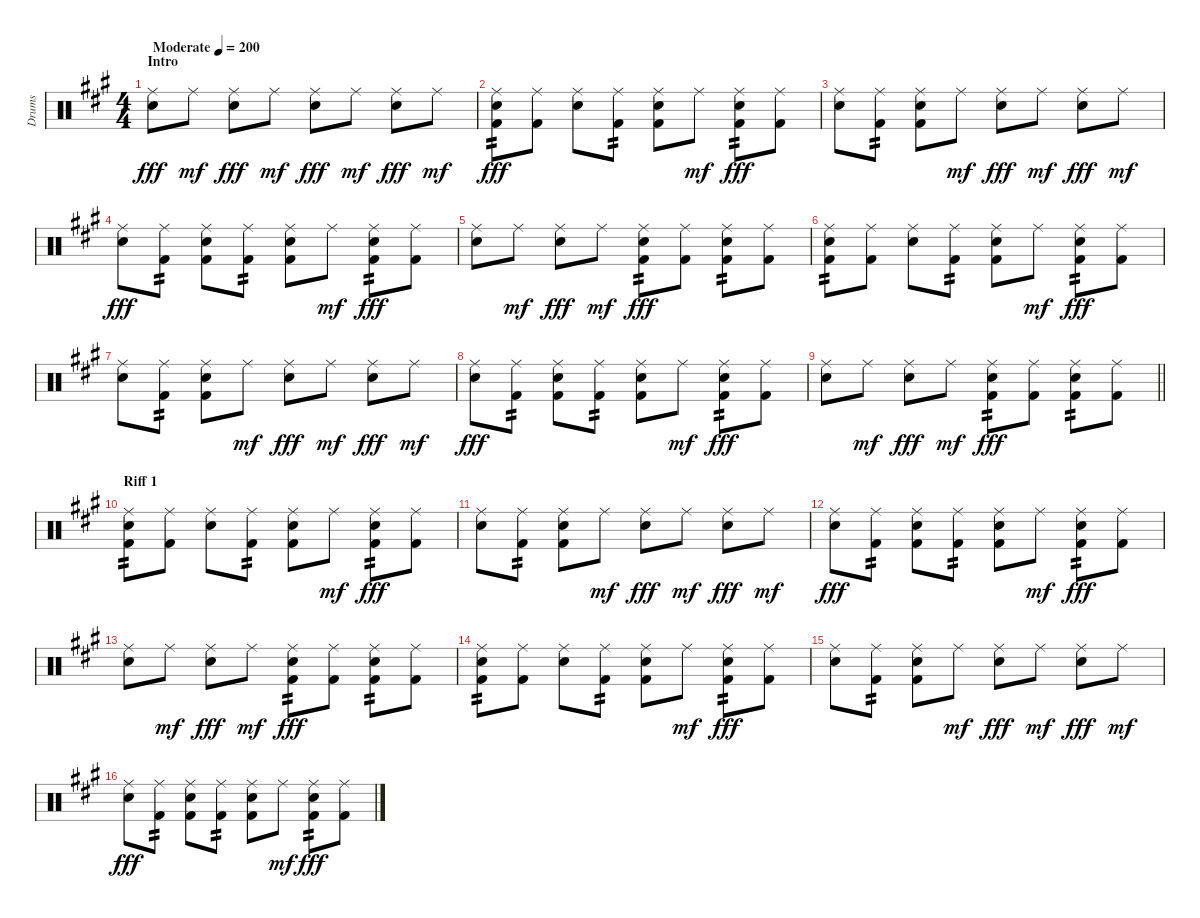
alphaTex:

\track ("Drums" "Drums") {instrument percussion}
\staff {score}
\articulation defaults
\ts (4 4)
\section ("" "Intro")
\tempo (200 "Moderate")
\clef neutral
\ks f#minor
("Ride (middle)" "Electric Snare (hit)").8{dy fff} "Ride (middle)".8{dy mf} ("Ride (middle)" "Electric Snare (hit)").8{dy fff} "Ride (middle)".8{dy mf} ("Ride (middle)" "Electric Snare (hit)").8{dy fff} "Ride (middle)".8{dy mf} ("Ride (middle)" "Electric Snare (hit)").8{dy fff} "Ride (middle)".8{dy mf} |
("Ride (middle)" "Electric Snare (hit)" "Kick (hit) 2").8{tp 2 dy fff} ("Ride (middle)" "Kick (hit) 2").8 ("Ride (middle)" "Electric Snare (hit)").8 ("Ride (middle)" "Kick (hit) 2").8{tp 2} ("Ride (middle)" "Electric Snare (hit)" "Kick (hit) 2").8 "Ride (middle)".8{dy mf} ("Ride (middle)" "Electric Snare (hit)" "Kick (hit) 2").8{tp 2 dy fff} ("Ride (middle)" "Kick (hit) 2").8 |
("Ride (middle)" "Electric Snare (hit)").8 ("Ride (middle)" "Kick (hit) 2").8{tp 2} ("Ride (middle)" "Electric Snare (hit)" "Kick (hit) 2").8 "Ride (middle)".8{dy mf} ("Ride (middle)" "Electric Snare (hit)").8{dy fff} "Ride (middle)".8{dy mf} ("Ride (middle)" "Electric Snare (hit)").8{dy fff} "Ride (middle)".8{dy mf} |
("Ride (middle)" "Electric Snare (hit)").8{dy fff} ("Ride (middle)" "Kick (hit) 2").8{tp 2} ("Ride (middle)" "Electric Snare (hit)" "Kick (hit) 2").8 ("Ride (middle)" "Kick (hit) 2").8{tp 2} ("Ride (middle)" "Electric Snare (hit)" "Kick (hit) 2").8 "Ride (middle)".8{dy mf} ("Ride (middle)" "Electric Snare (hit)" "Kick (hit) 2").8{tp 2 dy fff} ("Ride (middle)" "Kick (hit) 2").8 |
("Ride (middle)" "Electric Snare (hit)").8 "Ride (middle)".8{dy mf} ("Ride (middle)" "Electric Snare (hit)").8{dy fff} "Ride (middle)".8{dy mf} ("Ride (middle)" "Electric Snare (hit)" "Kick (hit) 2").8{tp 2 dy fff} ("Ride (middle)" "Kick (hit) 2").8 ("Ride (middle)" "Electric Snare (hit)" "Kick (hit) 2").8{tp 2} ("Ride (middle)" "Kick (hit) 2").8 |
("Ride (middle)" "Electric Snare (hit)" "Kick (hit) 2").8{tp 2} ("Ride (middle)" "Kick (hit) 2").8 ("Ride (middle)" "Electric Snare (hit)").8 ("Ride (middle)" "Kick (hit) 2").8{tp 2} ("Ride (middle)" "Electric Snare (hit)" "Kick (hit) 2").8 "Ride (middle)".8{dy mf} ("Ride (middle)" "Electric Snare (hit)" "Kick (hit) 2").8{tp 2 dy fff} ("Ride (middle)" "Kick (hit) 2").8 |
("Ride (middle)" "Electric Snare (hit)").8 ("Ride (middle)" "Kick (hit) 2").8{tp 2} ("Ride (middle)" "Electric Snare (hit)" "Kick (hit) 2").8 "Ride (middle)".8{dy mf} ("Ride (middle)" "Electric Snare (hit)").8{dy fff} "Ride (middle)".8{dy mf} ("Ride (middle)" "Electric Snare (hit)").8{dy fff} "Ride (middle)".8{dy mf} |
("Ride (middle)" "Electric Snare (hit)").8{dy fff} ("Ride (middle)" "Kick (hit) 2").8{tp 2} ("Ride (middle)" "Electric Snare (hit)" "Kick (hit) 2").8 ("Ride (middle)" "Kick (hit) 2").8{tp 2} ("Ride (middle)" "Electric Snare (hit)" "Kick (hit) 2").8 "Ride (middle)".8{dy mf} ("Ride (middle)" "Electric Snare (hit)" "Kick (hit) 2").8{tp 2 dy fff} ("Ride (middle)" "Kick (hit) 2").8 |
\barLineRight lightlight
("Ride (middle)" "Electric Snare (hit)").8 "Ride (middle)".8{dy mf} ("Ride (middle)" "Electric Snare (hit)").8{dy fff} "Ride (middle)".8{dy mf} ("Ride (middle)" "Electric Snare (hit)" "Kick (hit) 2").8{tp 2 dy fff} ("Ride (middle)" "Kick (hit) 2").8 ("Ride (middle)" "Electric Snare (hit)" "Kick (hit) 2").8{tp 2} ("Ride (middle)" "Kick (hit) 2").8 |
\section ("" "Riff 1")
("Ride (middle)" "Electric Snare (hit)" "Kick (hit) 2").8{tp 2} ("Ride (middle)" "Kick (hit) 2").8 ("Ride (middle)" "Electric Snare (hit)").8 ("Ride (middle)" "Kick (hit) 2").8{tp 2} ("Ride (middle)" "Electric Snare (hit)" "Kick (hit) 2").8 "Ride (middle)".8{dy mf} ("Ride (middle)" "Electric Snare (hit)" "Kick (hit) 2").8{tp 2 dy fff} ("Ride (middle)" "Kick (hit) 2").8 |
("Ride (middle)" "Electric Snare (hit)").8 ("Ride (middle)" "Kick (hit) 2").8{tp 2} ("Ride (middle)" "Electric Snare (hit)" "Kick (hit) 2").8 "Ride (middle)".8{dy mf} ("Ride (middle)" "Electric Snare (hit)").8{dy fff} "Ride (middle)".8{dy mf} ("Ride (middle)" "Electric Snare (hit)").8{dy fff} "Ride (middle)".8{dy mf} |
("Ride (middle)" "Electric Snare (hit)").8{dy fff} ("Ride (middle)" "Kick (hit) 2").8{tp 2} ("Ride (middle)" "Electric Snare (hit)" "Kick (hit) 2").8 ("Ride (middle)" "Kick (hit) 2").8{tp 2} ("Ride (middle)" "Electric Snare (hit)" "Kick (hit) 2").8 "Ride (middle)".8{dy mf} ("Ride (middle)" "Electric Snare (hit)" "Kick (hit) 2").8{tp 2 dy fff} ("Ride (middle)" "Kick (hit) 2").8 |
("Ride (middle)" "Electric Snare (hit)").8 "Ride (middle)".8{dy mf} ("Ride (middle)" "Electric Snare (hit)").8{dy fff} "Ride (middle)".8{dy mf} ("Ride (middle)" "Electric Snare (hit)" "Kick (hit) 2").8{tp 2 dy fff} ("Ride (middle)" "Kick (hit) 2").8 ("Ride (middle)" "Electric Snare (hit)" "Kick (hit) 2").8{tp 2} ("Ride (middle)" "Kick (hit) 2").8 |
("Ride (middle)" "Electric Snare (hit)" "Kick (hit) 2").8{tp 2} ("Ride (middle)" "Kick (hit) 2").8 ("Ride (middle)" "Electric Snare (hit)").8 ("Ride (middle)" "Kick (hit) 2").8{tp 2} ("Ride (middle)" "Electric Snare (hit)" "Kick (hit) 2").8 "Ride (middle)".8{dy mf} ("Ride (middle)" "Electric Snare (hit)" "Kick (hit) 2").8{tp 2 dy fff} ("Ride (middle)" "Kick (hit) 2").8 |
("Ride (middle)" "Electric Snare (hit)").8 ("Ride (middle)" "Kick (hit) 2").8{tp 2} ("Ride (middle)" "Electric Snare (hit)" "Kick (hit) 2").8 "Ride (middle)".8{dy mf} ("Ride (middle)" "Electric Snare (hit)").8{dy fff} "Ride (middle)".8{dy mf} ("Ride (middle)" "Electric Snare (hit)").8{dy fff} "Ride (middle)".8{dy mf} |
("Ride (middle)" "Electric Snare (hit)").8{dy fff} ("Ride (middle)" "Kick (hit) 2").8{tp 2} ("Ride (middle)" "Electric Snare (hit)" "Kick (hit) 2").8 ("Ride (middle)" "Kick (hit) 2").8{tp 2} ("Ride (middle)" "Electric Snare (hit)" "Kick (hit) 2").8 "Ride (middle)".8{dy mf} ("Ride (middle)" "Electric Snare (hit)" "Kick (hit) 2").8{tp 2 dy fff} ("Ride (middle)" "Kick (hit) 2").8
